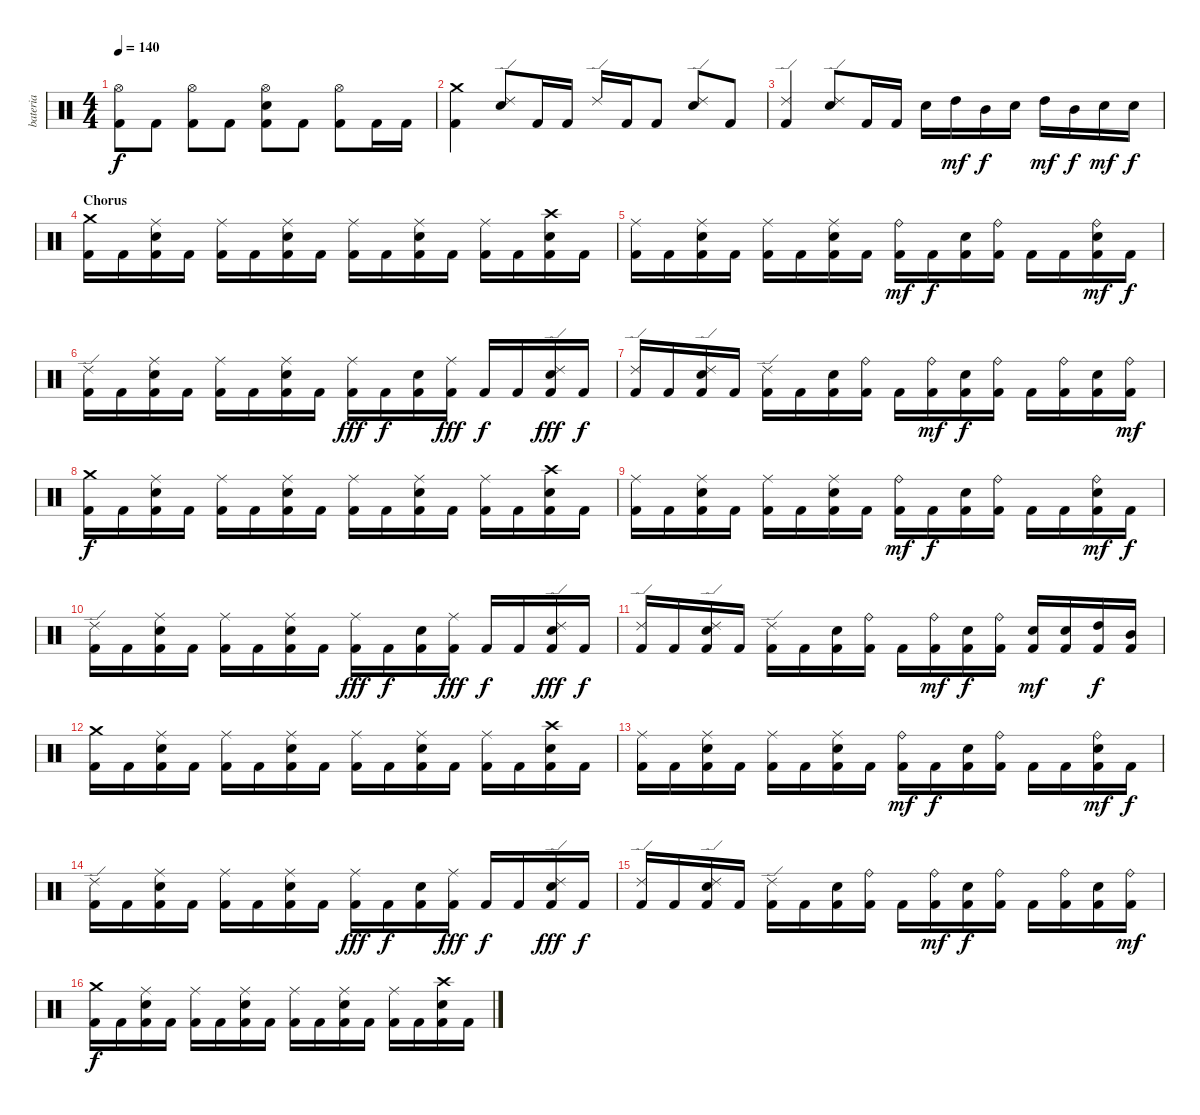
\track ("bateria" "bateria") {instrument percussion}
\staff {score}
\articulation defaults
\ts (4 4)
\tempo 140
\clef neutral
\ks c
("Hi-Hat (open)" "Kick (hit) 2").8{dy f} "Kick (hit) 2".8 ("Hi-Hat (open)" "Kick (hit) 2").8 "Kick (hit) 2".8 ("Hi-Hat (open)" "Electric Snare (hit)" "Kick (hit) 2").8 "Kick (hit) 2".8 ("Hi-Hat (open)" "Kick (hit) 2").8 "Kick (hit) 2".16 "Kick (hit) 2".16 |
("Crash medium (hit)" "Kick (hit) 2").4 ("Ride (edge) 2" "Electric Snare (hit)").8 "Kick (hit) 2".16 "Kick (hit) 2".16 "Ride (edge) 2".16 "Kick (hit) 2".16 "Kick (hit) 2".8 ("Ride (edge) 2" "Electric Snare (hit)").8 "Kick (hit) 2".8 |
("Ride (edge) 2" "Kick (hit) 2").4 ("Ride (edge) 2" "Electric Snare (hit)").8 "Kick (hit) 2".16 "Kick (hit) 2".16 "Electric Snare (hit)".16 "High Tom (hit)".16{dy mf} "Mid Tom (hit)".16{dy f} "Electric Snare (hit)".16 "High Tom (hit)".16{dy mf} "Mid Tom (hit)".16{dy f} "Electric Snare (hit)".16{dy mf} "Electric Snare (hit)".16{dy f} |
\section ("" "Chorus")
("Crash medium (hit)" "Kick (hit) 2").16 "Kick (hit) 2".16 ("Ride (middle)" "Electric Snare (hit)" "Kick (hit) 2").16 "Kick (hit) 2".16 ("Ride (middle)" "Kick (hit) 2").16 "Kick (hit) 2".16 ("Ride (middle)" "Electric Snare (hit)" "Kick (hit) 2").16 "Kick (hit) 2".16 ("Ride (middle)" "Kick (hit) 2").16 "Kick (hit) 2".16 ("Ride (middle)" "Electric Snare (hit)" "Kick (hit) 2").16 "Kick (hit) 2".16 ("Ride (middle)" "Kick (hit) 2").16 "Kick (hit) 2".16 ("Crash high (hit)" "Electric Snare (hit)" "Kick (hit) 2").16 "Kick (hit) 2".16 |
("Ride (middle)" "Kick (hit) 2").16 "Kick (hit) 2".16 ("Ride (middle)" "Electric Snare (hit)" "Kick (hit) 2").16 "Kick (hit) 2".16 ("Ride (middle)" "Kick (hit) 2").16 "Kick (hit) 2".16 ("Ride (middle)" "Electric Snare (hit)" "Kick (hit) 2").16 "Kick (hit) 2".16 ("Ride (bell)" "Kick (hit) 2").16{dy mf} "Kick (hit) 2".16{dy f} ("Electric Snare (hit)" "Kick (hit) 2").16 ("Ride (bell)" "Kick (hit) 2").16 "Kick (hit) 2".16 "Kick (hit) 2".16 ("Ride (bell)" "Electric Snare (hit)" "Kick (hit) 2").16{dy mf} "Kick (hit) 2".16{dy f} |
("Ride (edge) 2" "Kick (hit) 2").16 "Kick (hit) 2".16 ("Ride (middle)" "Electric Snare (hit)" "Kick (hit) 2").16 "Kick (hit) 2".16 ("Ride (middle)" "Kick (hit) 2").16 "Kick (hit) 2".16 ("Ride (middle)" "Electric Snare (hit)" "Kick (hit) 2").16 "Kick (hit) 2".16 ("Ride (middle)" "Kick (hit) 2").16{dy fff} "Kick (hit) 2".16{dy f} ("Electric Snare (hit)" "Kick (hit) 2").16 ("Ride (middle)" "Kick (hit) 2").16{dy fff} "Kick (hit) 2".16{dy f} "Kick (hit) 2".16 ("Ride (edge) 2" "Electric Snare (hit)" "Kick (hit) 2").16{dy fff} "Kick (hit) 2".16{dy f} |
("Ride (edge) 2" "Kick (hit) 2").16 "Kick (hit) 2".16 ("Ride (edge) 2" "Electric Snare (hit)" "Kick (hit) 2").16 "Kick (hit) 2".16 ("Ride (edge) 2" "Kick (hit) 2").16 "Kick (hit) 2".16 ("Electric Snare (hit)" "Kick (hit) 2").16 ("Ride (bell)" "Kick (hit) 2").16 "Kick (hit) 2".16 ("Ride (bell)" "Kick (hit) 2").16{dy mf} ("Electric Snare (hit)" "Kick (hit) 2").16{dy f} ("Ride (bell)" "Kick (hit) 2").16 "Kick (hit) 2".16 ("Ride (bell)" "Kick (hit) 2").16 ("Electric Snare (hit)" "Kick (hit) 2").16 ("Ride (bell)" "Kick (hit) 2").16{dy mf} |
("Crash medium (hit)" "Kick (hit) 2").16{dy f} "Kick (hit) 2".16 ("Ride (middle)" "Electric Snare (hit)" "Kick (hit) 2").16 "Kick (hit) 2".16 ("Ride (middle)" "Kick (hit) 2").16 "Kick (hit) 2".16 ("Ride (middle)" "Electric Snare (hit)" "Kick (hit) 2").16 "Kick (hit) 2".16 ("Ride (middle)" "Kick (hit) 2").16 "Kick (hit) 2".16 ("Ride (middle)" "Electric Snare (hit)" "Kick (hit) 2").16 "Kick (hit) 2".16 ("Ride (middle)" "Kick (hit) 2").16 "Kick (hit) 2".16 ("Crash high (hit)" "Electric Snare (hit)" "Kick (hit) 2").16 "Kick (hit) 2".16 |
("Ride (middle)" "Kick (hit) 2").16 "Kick (hit) 2".16 ("Ride (middle)" "Electric Snare (hit)" "Kick (hit) 2").16 "Kick (hit) 2".16 ("Ride (middle)" "Kick (hit) 2").16 "Kick (hit) 2".16 ("Ride (middle)" "Electric Snare (hit)" "Kick (hit) 2").16 "Kick (hit) 2".16 ("Ride (bell)" "Kick (hit) 2").16{dy mf} "Kick (hit) 2".16{dy f} ("Electric Snare (hit)" "Kick (hit) 2").16 ("Ride (bell)" "Kick (hit) 2").16 "Kick (hit) 2".16 "Kick (hit) 2".16 ("Ride (bell)" "Electric Snare (hit)" "Kick (hit) 2").16{dy mf} "Kick (hit) 2".16{dy f} |
("Ride (edge) 2" "Kick (hit) 2").16 "Kick (hit) 2".16 ("Ride (middle)" "Electric Snare (hit)" "Kick (hit) 2").16 "Kick (hit) 2".16 ("Ride (middle)" "Kick (hit) 2").16 "Kick (hit) 2".16 ("Ride (middle)" "Electric Snare (hit)" "Kick (hit) 2").16 "Kick (hit) 2".16 ("Ride (middle)" "Kick (hit) 2").16{dy fff} "Kick (hit) 2".16{dy f} ("Electric Snare (hit)" "Kick (hit) 2").16 ("Ride (middle)" "Kick (hit) 2").16{dy fff} "Kick (hit) 2".16{dy f} "Kick (hit) 2".16 ("Ride (edge) 2" "Electric Snare (hit)" "Kick (hit) 2").16{dy fff} "Kick (hit) 2".16{dy f} |
("Ride (edge) 2" "Kick (hit) 2").16 "Kick (hit) 2".16 ("Ride (edge) 2" "Electric Snare (hit)" "Kick (hit) 2").16 "Kick (hit) 2".16 ("Ride (edge) 2" "Kick (hit) 2").16 "Kick (hit) 2".16 ("Electric Snare (hit)" "Kick (hit) 2").16 ("Ride (bell)" "Kick (hit) 2").16 "Kick (hit) 2".16 ("Ride (bell)" "Kick (hit) 2").16{dy mf} ("Electric Snare (hit)" "Kick (hit) 2").16{dy f} ("Ride (bell)" "Kick (hit) 2").16 ("Electric Snare (hit)" "Kick (hit) 2").16{dy mf} ("Electric Snare (hit)" "Kick (hit) 2").16 ("High Tom (hit)" "Kick (hit) 2").16{dy f} ("Mid Tom (hit)" "Kick (hit) 2").16 |
("Crash medium (hit)" "Kick (hit) 2").16 "Kick (hit) 2".16 ("Ride (middle)" "Electric Snare (hit)" "Kick (hit) 2").16 "Kick (hit) 2".16 ("Ride (middle)" "Kick (hit) 2").16 "Kick (hit) 2".16 ("Ride (middle)" "Electric Snare (hit)" "Kick (hit) 2").16 "Kick (hit) 2".16 ("Ride (middle)" "Kick (hit) 2").16 "Kick (hit) 2".16 ("Ride (middle)" "Electric Snare (hit)" "Kick (hit) 2").16 "Kick (hit) 2".16 ("Ride (middle)" "Kick (hit) 2").16 "Kick (hit) 2".16 ("Crash high (hit)" "Electric Snare (hit)" "Kick (hit) 2").16 "Kick (hit) 2".16 |
("Ride (middle)" "Kick (hit) 2").16 "Kick (hit) 2".16 ("Ride (middle)" "Electric Snare (hit)" "Kick (hit) 2").16 "Kick (hit) 2".16 ("Ride (middle)" "Kick (hit) 2").16 "Kick (hit) 2".16 ("Ride (middle)" "Electric Snare (hit)" "Kick (hit) 2").16 "Kick (hit) 2".16 ("Ride (bell)" "Kick (hit) 2").16{dy mf} "Kick (hit) 2".16{dy f} ("Electric Snare (hit)" "Kick (hit) 2").16 ("Ride (bell)" "Kick (hit) 2").16 "Kick (hit) 2".16 "Kick (hit) 2".16 ("Ride (bell)" "Electric Snare (hit)" "Kick (hit) 2").16{dy mf} "Kick (hit) 2".16{dy f} |
("Ride (edge) 2" "Kick (hit) 2").16 "Kick (hit) 2".16 ("Ride (middle)" "Electric Snare (hit)" "Kick (hit) 2").16 "Kick (hit) 2".16 ("Ride (middle)" "Kick (hit) 2").16 "Kick (hit) 2".16 ("Ride (middle)" "Electric Snare (hit)" "Kick (hit) 2").16 "Kick (hit) 2".16 ("Ride (middle)" "Kick (hit) 2").16{dy fff} "Kick (hit) 2".16{dy f} ("Electric Snare (hit)" "Kick (hit) 2").16 ("Ride (middle)" "Kick (hit) 2").16{dy fff} "Kick (hit) 2".16{dy f} "Kick (hit) 2".16 ("Ride (edge) 2" "Electric Snare (hit)" "Kick (hit) 2").16{dy fff} "Kick (hit) 2".16{dy f} |
("Ride (edge) 2" "Kick (hit) 2").16 "Kick (hit) 2".16 ("Ride (edge) 2" "Electric Snare (hit)" "Kick (hit) 2").16 "Kick (hit) 2".16 ("Ride (edge) 2" "Kick (hit) 2").16 "Kick (hit) 2".16 ("Electric Snare (hit)" "Kick (hit) 2").16 ("Ride (bell)" "Kick (hit) 2").16 "Kick (hit) 2".16 ("Ride (bell)" "Kick (hit) 2").16{dy mf} ("Electric Snare (hit)" "Kick (hit) 2").16{dy f} ("Ride (bell)" "Kick (hit) 2").16 "Kick (hit) 2".16 ("Ride (bell)" "Kick (hit) 2").16 ("Electric Snare (hit)" "Kick (hit) 2").16 ("Ride (bell)" "Kick (hit) 2").16{dy mf} |
("Crash medium (hit)" "Kick (hit) 2").16{dy f} "Kick (hit) 2".16 ("Ride (middle)" "Electric Snare (hit)" "Kick (hit) 2").16 "Kick (hit) 2".16 ("Ride (middle)" "Kick (hit) 2").16 "Kick (hit) 2".16 ("Ride (middle)" "Electric Snare (hit)" "Kick (hit) 2").16 "Kick (hit) 2".16 ("Ride (middle)" "Kick (hit) 2").16 "Kick (hit) 2".16 ("Ride (middle)" "Electric Snare (hit)" "Kick (hit) 2").16 "Kick (hit) 2".16 ("Ride (middle)" "Kick (hit) 2").16 "Kick (hit) 2".16 ("Crash high (hit)" "Electric Snare (hit)" "Kick (hit) 2").16 "Kick (hit) 2".16
